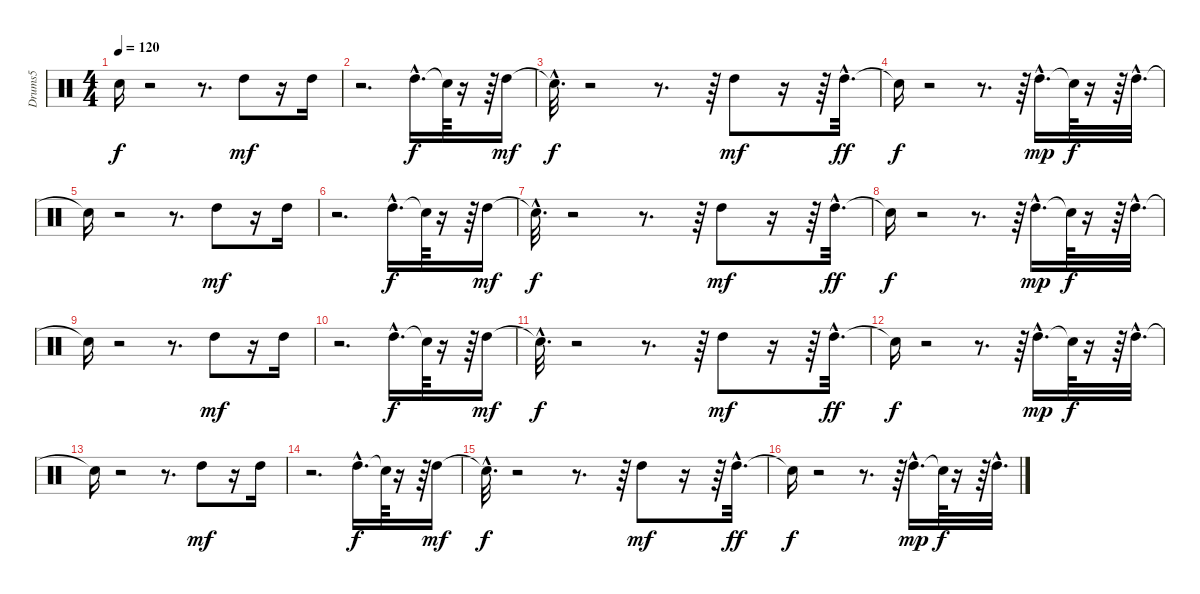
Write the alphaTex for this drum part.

\track ("Drums5" "Drums5") {instrument percussion}
\staff {score}
\articulation defaults
\ts (4 4)
\tempo 120
\clef neutral
\ks c "Snare (hit)"{t}.16{dy f}
r.2 r.8{d} "High Tom (hit)".8{dy mf} r.16 "High Tom (hit)".16 |
r.2{d} "High Tom (hit)"{hac}.16{d dy f} "Snare (hit)"{t}.64 r.16 r.64 "High Tom (hit)".16{dy mf} |
"Snare (hit)"{hac t}.32{d dy f} r.2 r.8{d} r.64 "High Tom (hit)".8{dy mf} r.16 r.64 "High Tom (hit)"{hac}.32{d dy ff} |
"Snare (hit)"{t}.16{dy f} r.2 r.8{d} r.64 "High Tom (hit)"{hac}.16{d dy mp} "Snare (hit)"{t}.64{dy f} r.16 r.64 "High Tom (hit)"{hac}.32{d} |
"Snare (hit)"{t}.16 r.2 r.8{d} "High Tom (hit)".8{dy mf} r.16 "High Tom (hit)".16 |
r.2{d} "High Tom (hit)"{hac}.16{d dy f} "Snare (hit)"{t}.64 r.16 r.64 "High Tom (hit)".16{dy mf} |
"Snare (hit)"{hac t}.32{d dy f} r.2 r.8{d} r.64 "High Tom (hit)".8{dy mf} r.16 r.64 "High Tom (hit)"{hac}.32{d dy ff} |
"Snare (hit)"{t}.16{dy f} r.2 r.8{d} r.64 "High Tom (hit)"{hac}.16{d dy mp} "Snare (hit)"{t}.64{dy f} r.16 r.64 "High Tom (hit)"{hac}.32{d} |
"Snare (hit)"{t}.16 r.2 r.8{d} "High Tom (hit)".8{dy mf} r.16 "High Tom (hit)".16 |
r.2{d} "High Tom (hit)"{hac}.16{d dy f} "Snare (hit)"{t}.64 r.16 r.64 "High Tom (hit)".16{dy mf} |
"Snare (hit)"{hac t}.32{d dy f} r.2 r.8{d} r.64 "High Tom (hit)".8{dy mf} r.16 r.64 "High Tom (hit)"{hac}.32{d dy ff} |
"Snare (hit)"{t}.16{dy f} r.2 r.8{d} r.64 "High Tom (hit)"{hac}.16{d dy mp} "Snare (hit)"{t}.64{dy f} r.16 r.64 "High Tom (hit)"{hac}.32{d} |
"Snare (hit)"{t}.16 r.2 r.8{d} "High Tom (hit)".8{dy mf} r.16 "High Tom (hit)".16 |
r.2{d} "High Tom (hit)"{hac}.16{d dy f} "Snare (hit)"{t}.64 r.16 r.64 "High Tom (hit)".16{dy mf} |
"Snare (hit)"{hac t}.32{d dy f} r.2 r.8{d} r.64 "High Tom (hit)".8{dy mf} r.16 r.64 "High Tom (hit)"{hac}.32{d dy ff} |
"Snare (hit)"{t}.16{dy f} r.2 r.8{d} r.64 "High Tom (hit)"{hac}.16{d dy mp} "Snare (hit)"{t}.64{dy f} r.16 r.64 "High Tom (hit)"{hac}.32{d}
